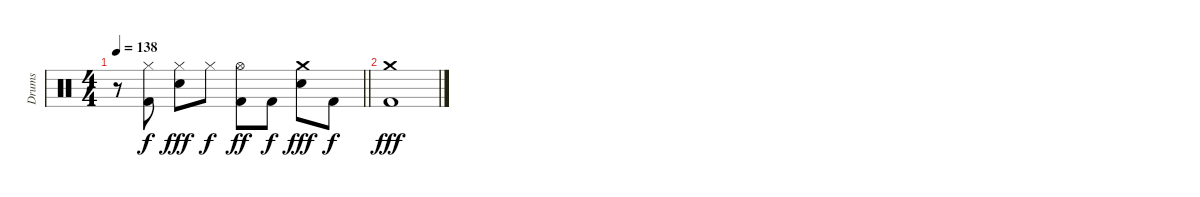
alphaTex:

\track ("Drums" "Drums") {instrument percussion}
\staff {score}
\articulation defaults
\ts (4 4)
\tempo 138
\clef neutral
\barLineRight lightlight
\ks c
r.8{dy fff} ("Kick (hit) 2" "Hi-Hat (closed)").8{dy f} ("Snare (hit) 2" "Hi-Hat (closed)").8{dy fff} "Hi-Hat (closed)".8{dy f} ("Hi-Hat (open)" "Kick (hit) 2").8{dy ff} "Kick (hit) 2".8{dy f} ("Crash medium (hit)" "Snare (hit) 2").8{dy fff} "Kick (hit) 2".8{dy f} |
("Kick (hit) 2" "Crash medium (hit)").1{dy fff}
